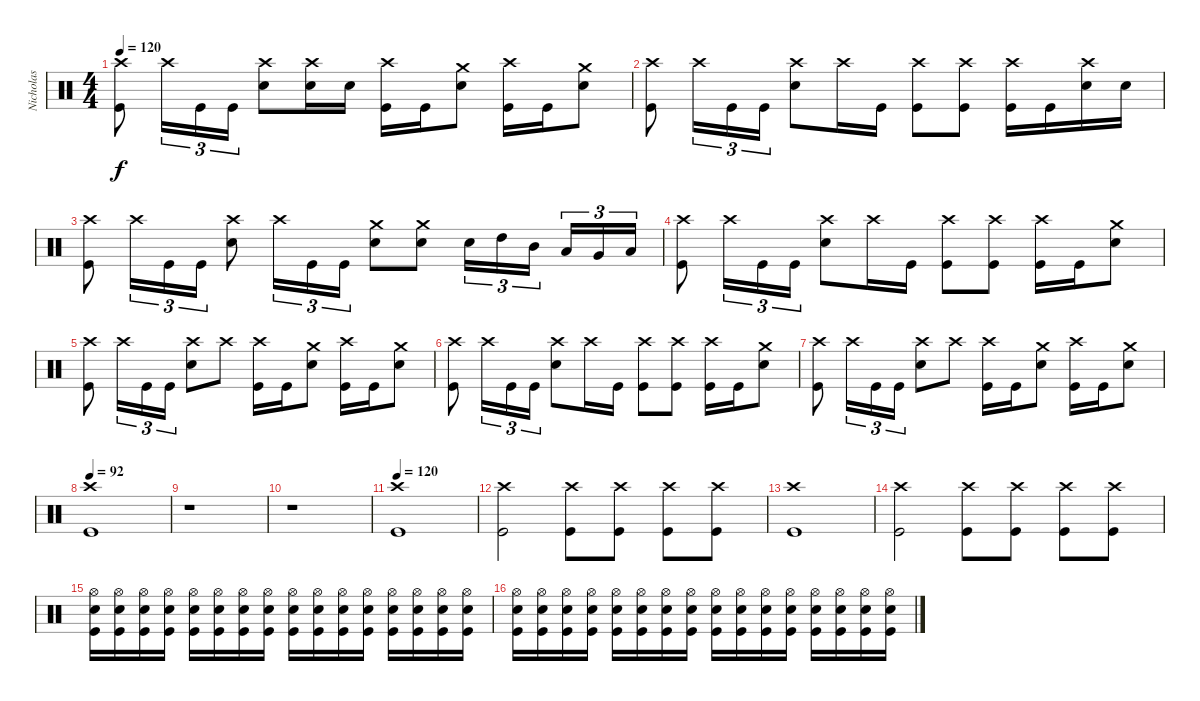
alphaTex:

\track ("Nicholas" "Nicholas") {instrument percussion}
\staff {score}
\articulation defaults
\ts (4 4)
\tempo 120
\clef neutral
\ks c
("Crash high (hit)" "Kick (hit)").8{dy f} "Crash high (hit)".16{tu (3 2)} "Kick (hit)".16{tu (3 2)} "Kick (hit)".16{tu (3 2)} ("Crash high (hit)" "Electric Snare (hit)").8 ("Crash high (hit)" "Electric Snare (hit)").16 "Electric Snare (hit)".16 ("Crash high (hit)" "Kick (hit)").16 "Kick (hit)".16 ("Crash medium (hit)" "Electric Snare (hit)").8 ("Crash high (hit)" "Kick (hit)").16 "Kick (hit)".16 ("Crash medium (hit)" "Electric Snare (hit)").8 |
("Crash high (hit)" "Kick (hit)").8 "Crash high (hit)".16{tu (3 2)} "Kick (hit)".16{tu (3 2)} "Kick (hit)".16{tu (3 2)} ("Crash high (hit)" "Electric Snare (hit)").8 "Crash high (hit)".16 "Kick (hit)".16 ("Crash high (hit)" "Kick (hit)").8 ("Crash high (hit)" "Kick (hit)").8 ("Crash high (hit)" "Kick (hit)").16 "Kick (hit)".16 ("Crash high (hit)" "Electric Snare (hit)").16 "Electric Snare (hit)".16 |
("Crash high (hit)" "Kick (hit)").8 "Crash high (hit)".16{tu (3 2)} "Kick (hit)".16{tu (3 2)} "Kick (hit)".16{tu (3 2)} ("Crash high (hit)" "Electric Snare (hit)").8 "Crash high (hit)".16{tu (3 2)} "Kick (hit)".16{tu (3 2)} "Kick (hit)".16{tu (3 2)} ("Crash medium (hit)" "Electric Snare (hit)").8 ("Crash medium (hit)" "Electric Snare (hit)").8 "Electric Snare (hit)".16{tu (3 2)} "High Tom (hit)".16{tu (3 2)} "Mid Tom (hit)".16{tu (3 2)} "Low Tom (hit)".16{tu (3 2)} "Very Low Tom (hit)".16{tu (3 2)} "Low Floor Tom (hit)".16{tu (3 2)} |
("Crash high (hit)" "Kick (hit)").8 "Crash high (hit)".16{tu (3 2)} "Kick (hit)".16{tu (3 2)} "Kick (hit)".16{tu (3 2)} ("Crash high (hit)" "Electric Snare (hit)").8 "Crash high (hit)".16 "Kick (hit)".16 ("Crash high (hit)" "Kick (hit)").8 ("Crash high (hit)" "Kick (hit)").8 ("Crash high (hit)" "Kick (hit)").16 "Kick (hit)".16 ("Crash medium (hit)" "Electric Snare (hit)").8 |
("Crash high (hit)" "Kick (hit)").8 "Crash high (hit)".16{tu (3 2)} "Kick (hit)".16{tu (3 2)} "Kick (hit)".16{tu (3 2)} ("Crash high (hit)" "Electric Snare (hit)").8 "Crash high (hit)".8 ("Crash high (hit)" "Kick (hit)").16 "Kick (hit)".16 ("Crash medium (hit)" "Electric Snare (hit)").8 ("Crash high (hit)" "Kick (hit)").16 "Kick (hit)".16 ("Crash medium (hit)" "Electric Snare (hit)").8 |
("Crash high (hit)" "Kick (hit)").8 "Crash high (hit)".16{tu (3 2)} "Kick (hit)".16{tu (3 2)} "Kick (hit)".16{tu (3 2)} ("Crash high (hit)" "Electric Snare (hit)").8 "Crash high (hit)".16 "Kick (hit)".16 ("Crash high (hit)" "Kick (hit)").8 ("Crash high (hit)" "Kick (hit)").8 ("Crash high (hit)" "Kick (hit)").16 "Kick (hit)".16 ("Crash medium (hit)" "Electric Snare (hit)").8 |
("Crash high (hit)" "Kick (hit)").8 "Crash high (hit)".16{tu (3 2)} "Kick (hit)".16{tu (3 2)} "Kick (hit)".16{tu (3 2)} ("Crash high (hit)" "Electric Snare (hit)").8 "Crash high (hit)".8 ("Crash high (hit)" "Kick (hit)").16 "Kick (hit)".16 ("Crash medium (hit)" "Electric Snare (hit)").8 ("Crash high (hit)" "Kick (hit)").16 "Kick (hit)".16 ("Crash medium (hit)" "Electric Snare (hit)").8 |
\tempo 92
("Crash high (hit)" "Kick (hit)").1 |
r.1 |
r.1 |
\tempo 120
("Crash high (hit)" "Kick (hit)").1 |
("Crash high (hit)" "Kick (hit)").2 ("Crash high (hit)" "Kick (hit)").8 ("Crash high (hit)" "Kick (hit)").8 ("Crash high (hit)" "Kick (hit)").8 ("Crash high (hit)" "Kick (hit)").8 |
("Crash high (hit)" "Kick (hit)").1 |
("Crash high (hit)" "Kick (hit)").2 ("Crash high (hit)" "Kick (hit)").8 ("Crash high (hit)" "Kick (hit)").8 ("Crash high (hit)" "Kick (hit)").8 ("Crash high (hit)" "Kick (hit)").8 |
("Hi-Hat (open)" "Electric Snare (hit)" "Kick (hit)").16 ("Hi-Hat (open)" "Electric Snare (hit)" "Kick (hit)").16 ("Hi-Hat (open)" "Electric Snare (hit)" "Kick (hit)").16 ("Hi-Hat (open)" "Electric Snare (hit)" "Kick (hit)").16 ("Hi-Hat (open)" "Electric Snare (hit)" "Kick (hit)").16 ("Hi-Hat (open)" "Electric Snare (hit)" "Kick (hit)").16 ("Hi-Hat (open)" "Electric Snare (hit)" "Kick (hit)").16 ("Hi-Hat (open)" "Electric Snare (hit)" "Kick (hit)").16 ("Hi-Hat (open)" "Electric Snare (hit)" "Kick (hit)").16 ("Hi-Hat (open)" "Electric Snare (hit)" "Kick (hit)").16 ("Hi-Hat (open)" "Electric Snare (hit)" "Kick (hit)").16 ("Hi-Hat (open)" "Electric Snare (hit)" "Kick (hit)").16 ("Hi-Hat (open)" "Electric Snare (hit)" "Kick (hit)").16 ("Hi-Hat (open)" "Electric Snare (hit)" "Kick (hit)").16 ("Hi-Hat (open)" "Electric Snare (hit)" "Kick (hit)").16 ("Hi-Hat (open)" "Electric Snare (hit)" "Kick (hit)").16 |
("Hi-Hat (open)" "Electric Snare (hit)" "Kick (hit)").16 ("Hi-Hat (open)" "Electric Snare (hit)" "Kick (hit)").16 ("Hi-Hat (open)" "Electric Snare (hit)" "Kick (hit)").16 ("Hi-Hat (open)" "Electric Snare (hit)" "Kick (hit)").16 ("Hi-Hat (open)" "Electric Snare (hit)" "Kick (hit)").16 ("Hi-Hat (open)" "Electric Snare (hit)" "Kick (hit)").16 ("Hi-Hat (open)" "Electric Snare (hit)" "Kick (hit)").16 ("Hi-Hat (open)" "Electric Snare (hit)" "Kick (hit)").16 ("Hi-Hat (open)" "Electric Snare (hit)" "Kick (hit)").16 ("Hi-Hat (open)" "Electric Snare (hit)" "Kick (hit)").16 ("Hi-Hat (open)" "Electric Snare (hit)" "Kick (hit)").16 ("Hi-Hat (open)" "Electric Snare (hit)" "Kick (hit)").16 ("Hi-Hat (open)" "Electric Snare (hit)" "Kick (hit)").16 ("Hi-Hat (open)" "Electric Snare (hit)" "Kick (hit)").16 ("Hi-Hat (open)" "Electric Snare (hit)" "Kick (hit)").16 ("Hi-Hat (open)" "Electric Snare (hit)" "Kick (hit)").16
